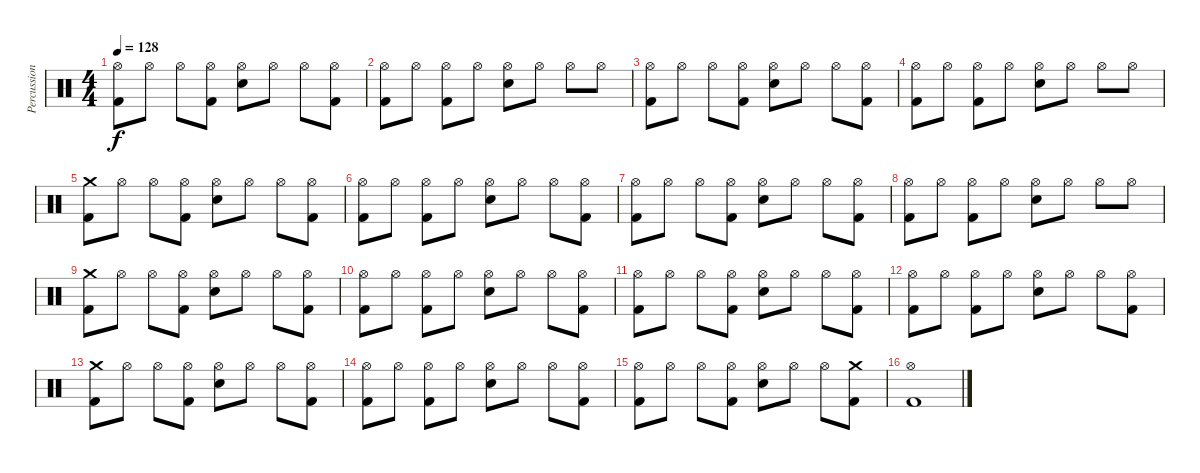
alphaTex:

\track ("Percussion" "Percussion") {instrument percussion}
\staff {score}
\articulation defaults
\ts (4 4)
\tempo 128
\clef neutral
\ks c
("Hi-Hat (open)" "Kick (hit) 2").8{dy f} "Hi-Hat (open)".8 "Hi-Hat (open)".8 ("Hi-Hat (open)" "Kick (hit) 2").8 ("Hi-Hat (open)" "Electric Snare (hit)").8 "Hi-Hat (open)".8 "Hi-Hat (open)".8 ("Hi-Hat (open)" "Kick (hit) 2").8 |
("Hi-Hat (open)" "Kick (hit) 2").8 "Hi-Hat (open)".8 ("Hi-Hat (open)" "Kick (hit) 2").8 "Hi-Hat (open)".8 ("Hi-Hat (open)" "Electric Snare (hit)").8 "Hi-Hat (open)".8 "Hi-Hat (open)".8 "Hi-Hat (open)".8 |
("Hi-Hat (open)" "Kick (hit) 2").8 "Hi-Hat (open)".8 "Hi-Hat (open)".8 ("Hi-Hat (open)" "Kick (hit) 2").8 ("Hi-Hat (open)" "Electric Snare (hit)").8 "Hi-Hat (open)".8 "Hi-Hat (open)".8 ("Hi-Hat (open)" "Kick (hit) 2").8 |
("Hi-Hat (open)" "Kick (hit) 2").8 "Hi-Hat (open)".8 ("Hi-Hat (open)" "Kick (hit) 2").8 "Hi-Hat (open)".8 ("Hi-Hat (open)" "Electric Snare (hit)").8 "Hi-Hat (open)".8 "Hi-Hat (open)".8 "Hi-Hat (open)".8 |
("Crash medium (hit)" "Kick (hit) 2").8 "Hi-Hat (open)".8 "Hi-Hat (open)".8 ("Hi-Hat (open)" "Kick (hit) 2").8 ("Hi-Hat (open)" "Electric Snare (hit)").8 "Hi-Hat (open)".8 "Hi-Hat (open)".8 ("Hi-Hat (open)" "Kick (hit) 2").8 |
("Hi-Hat (open)" "Kick (hit) 2").8 "Hi-Hat (open)".8 ("Hi-Hat (open)" "Kick (hit) 2").8 "Hi-Hat (open)".8 ("Hi-Hat (open)" "Electric Snare (hit)").8 "Hi-Hat (open)".8 "Hi-Hat (open)".8 ("Hi-Hat (open)" "Kick (hit) 2").8 |
("Hi-Hat (open)" "Kick (hit) 2").8 "Hi-Hat (open)".8 "Hi-Hat (open)".8 ("Hi-Hat (open)" "Kick (hit) 2").8 ("Hi-Hat (open)" "Electric Snare (hit)").8 "Hi-Hat (open)".8 "Hi-Hat (open)".8 ("Hi-Hat (open)" "Kick (hit) 2").8 |
("Hi-Hat (open)" "Kick (hit) 2").8 "Hi-Hat (open)".8 ("Hi-Hat (open)" "Kick (hit) 2").8 "Hi-Hat (open)".8 ("Hi-Hat (open)" "Electric Snare (hit)").8 "Hi-Hat (open)".8 "Hi-Hat (open)".8 "Hi-Hat (open)".8 |
("Crash medium (hit)" "Kick (hit) 2").8 "Hi-Hat (open)".8 "Hi-Hat (open)".8 ("Hi-Hat (open)" "Kick (hit) 2").8 ("Hi-Hat (open)" "Electric Snare (hit)").8 "Hi-Hat (open)".8 "Hi-Hat (open)".8 ("Hi-Hat (open)" "Kick (hit) 2").8 |
("Hi-Hat (open)" "Kick (hit) 2").8 "Hi-Hat (open)".8 ("Hi-Hat (open)" "Kick (hit) 2").8 "Hi-Hat (open)".8 ("Hi-Hat (open)" "Electric Snare (hit)").8 "Hi-Hat (open)".8 "Hi-Hat (open)".8 ("Hi-Hat (open)" "Kick (hit) 2").8 |
("Hi-Hat (open)" "Kick (hit) 2").8 "Hi-Hat (open)".8 "Hi-Hat (open)".8 ("Hi-Hat (open)" "Kick (hit) 2").8 ("Hi-Hat (open)" "Electric Snare (hit)").8 "Hi-Hat (open)".8 "Hi-Hat (open)".8 ("Hi-Hat (open)" "Kick (hit) 2").8 |
("Hi-Hat (open)" "Kick (hit) 2").8 "Hi-Hat (open)".8 ("Hi-Hat (open)" "Kick (hit) 2").8 "Hi-Hat (open)".8 ("Hi-Hat (open)" "Electric Snare (hit)").8 "Hi-Hat (open)".8 "Hi-Hat (open)".8 ("Hi-Hat (open)" "Kick (hit) 2").8 |
("Crash medium (hit)" "Kick (hit) 2").8 "Hi-Hat (open)".8 "Hi-Hat (open)".8 ("Hi-Hat (open)" "Kick (hit) 2").8 ("Hi-Hat (open)" "Electric Snare (hit)").8 "Hi-Hat (open)".8 "Hi-Hat (open)".8 ("Hi-Hat (open)" "Kick (hit) 2").8 |
("Hi-Hat (open)" "Kick (hit) 2").8 "Hi-Hat (open)".8 ("Hi-Hat (open)" "Kick (hit) 2").8 "Hi-Hat (open)".8 ("Hi-Hat (open)" "Electric Snare (hit)").8 "Hi-Hat (open)".8 "Hi-Hat (open)".8 ("Hi-Hat (open)" "Kick (hit) 2").8 |
("Hi-Hat (open)" "Kick (hit) 2").8 "Hi-Hat (open)".8 "Hi-Hat (open)".8 ("Hi-Hat (open)" "Kick (hit) 2").8 ("Hi-Hat (open)" "Electric Snare (hit)").8 "Hi-Hat (open)".8 "Hi-Hat (open)".8 ("Crash medium (hit)" "Kick (hit) 2").8 |
("Hi-Hat (open)" "Kick (hit) 2").1
